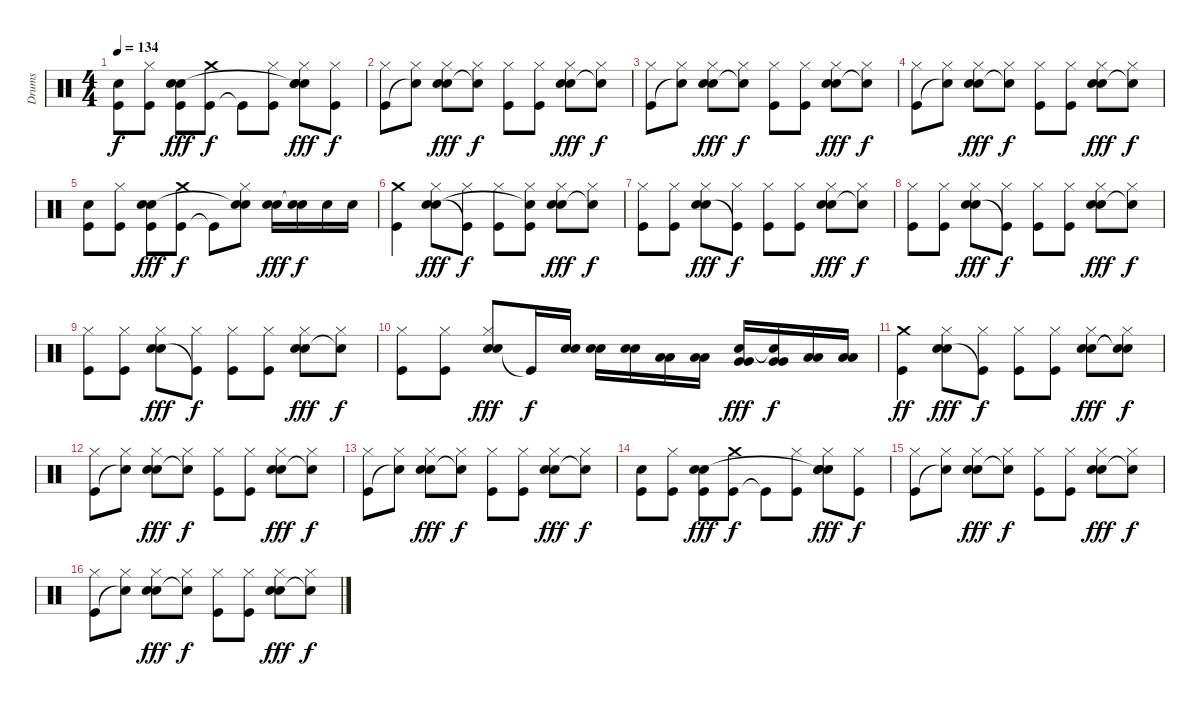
\track ("Drums" "Drums") {instrument percussion}
\staff {score}
\articulation defaults
\ts (4 4)
\tempo 134
\clef neutral
\ks c
("Kick (hit)" "Snare (hit) 2").8{dy f} ("Kick (hit)" "Hi-Hat (closed)").8 ("Kick (hit)" "Snare (hit) 2" "Hand Clap (hit)").8{dy fff} ("Kick (hit)" "Crash medium (hit)").8{dy f} "Kick (hit)"{t}.8 ("Kick (hit)" "Hi-Hat (closed)").8 ("Snare (hit) 2" "Hi-Hat (closed)" "Snare (hit)"{t} "Hand Clap (hit)").8{dy fff} ("Kick (hit)" "Hi-Hat (closed)").8{dy f} |
("Kick (hit)" "Hi-Hat (closed)").8 ("Snare (hit)"{t} "Hi-Hat (closed)").8 ("Snare (hit) 2" "Hi-Hat (closed)" "Hand Clap (hit)").8{dy fff} ("Snare (hit)"{t} "Hi-Hat (closed)").8{dy f} ("Kick (hit)" "Hi-Hat (closed)").8 ("Kick (hit)" "Hi-Hat (closed)").8 ("Snare (hit) 2" "Hi-Hat (closed)" "Hand Clap (hit)").8{dy fff} ("Snare (hit)"{t} "Hi-Hat (closed)").8{dy f} |
("Kick (hit)" "Hi-Hat (closed)").8 ("Snare (hit)"{t} "Hi-Hat (closed)").8 ("Snare (hit) 2" "Hi-Hat (closed)" "Hand Clap (hit)").8{dy fff} ("Snare (hit)"{t} "Hi-Hat (closed)").8{dy f} ("Kick (hit)" "Hi-Hat (closed)").8 ("Kick (hit)" "Hi-Hat (closed)").8 ("Snare (hit) 2" "Hi-Hat (closed)" "Hand Clap (hit)").8{dy fff} ("Snare (hit)"{t} "Hi-Hat (closed)").8{dy f} |
("Kick (hit)" "Hi-Hat (closed)").8 ("Snare (hit)"{t} "Hi-Hat (closed)").8 ("Snare (hit) 2" "Hi-Hat (closed)" "Hand Clap (hit)").8{dy fff} ("Snare (hit)"{t} "Hi-Hat (closed)").8{dy f} ("Kick (hit)" "Hi-Hat (closed)").8 ("Kick (hit)" "Hi-Hat (closed)").8 ("Snare (hit) 2" "Hi-Hat (closed)" "Hand Clap (hit)").8{dy fff} ("Snare (hit)"{t} "Hi-Hat (closed)").8{dy f} |
("Kick (hit)" "Snare (hit) 2").8 ("Kick (hit)" "Hi-Hat (closed)").8 ("Kick (hit)" "Snare (hit) 2" "Hand Clap (hit)").8{dy fff} ("Kick (hit)" "Crash medium (hit)").8{dy f} "Kick (hit)"{t}.8 ("Snare (hit) 2" "Hi-Hat (closed)" "Snare (hit)"{t}).8 ("Snare (hit) 2" "Hand Clap (hit)").16{dy fff} ("Snare (hit) 2" "Snare (hit)"{t}).16{dy f} "Snare (hit) 2".16 "Snare (hit) 2".16 |
("Kick (hit)" "Crash medium (hit)").4 ("Snare (hit) 2" "Hi-Hat (closed)" "Hand Clap (hit)").8{dy fff} ("Kick (hit)"{t} "Hi-Hat (closed)").8{dy f} ("Kick (hit)" "Hi-Hat (closed)").8 ("Kick (hit)" "Hi-Hat (closed)" "Snare (hit)"{t}).8 ("Snare (hit) 2" "Hi-Hat (closed)" "Hand Clap (hit)").8{dy fff} ("Snare (hit)"{t} "Hi-Hat (closed)").8{dy f} |
("Kick (hit)" "Hi-Hat (closed)").8 ("Kick (hit)" "Hi-Hat (closed)").8 ("Snare (hit) 2" "Hi-Hat (closed)" "Hand Clap (hit)").8{dy fff} ("Kick (hit)"{t} "Hi-Hat (closed)").8{dy f} ("Kick (hit)" "Hi-Hat (closed)").8 ("Kick (hit)" "Hi-Hat (closed)").8 ("Snare (hit) 2" "Hi-Hat (closed)" "Hand Clap (hit)").8{dy fff} ("Snare (hit)"{t} "Hi-Hat (closed)").8{dy f} |
("Kick (hit)" "Hi-Hat (closed)").8 ("Kick (hit)" "Hi-Hat (closed)").8 ("Snare (hit) 2" "Hi-Hat (closed)" "Hand Clap (hit)").8{dy fff} ("Kick (hit)"{t} "Hi-Hat (closed)").8{dy f} ("Kick (hit)" "Hi-Hat (closed)").8 ("Kick (hit)" "Hi-Hat (closed)").8 ("Snare (hit) 2" "Hi-Hat (closed)" "Hand Clap (hit)").8{dy fff} ("Snare (hit)"{t} "Hi-Hat (closed)").8{dy f} |
("Kick (hit)" "Hi-Hat (closed)").8 ("Kick (hit)" "Hi-Hat (closed)").8 ("Snare (hit) 2" "Hi-Hat (closed)" "Hand Clap (hit)").8{dy fff} ("Kick (hit)"{t} "Hi-Hat (closed)").8{dy f} ("Kick (hit)" "Hi-Hat (closed)").8 ("Kick (hit)" "Hi-Hat (closed)").8 ("Snare (hit) 2" "Hi-Hat (closed)" "Hand Clap (hit)").8{dy fff} ("Snare (hit)"{t} "Hi-Hat (closed)").8{dy f} |
("Kick (hit)" "Hi-Hat (closed)").8 ("Kick (hit)" "Hi-Hat (closed)").8 ("Snare (hit) 2" "Hi-Hat (closed)" "Hand Clap (hit)").8{dy fff} "Kick (hit)"{t}.16{dy f} ("Snare (hit) 2" "Snare (hit) 2").16 ("Snare (hit) 2" "Snare (hit) 2").16 ("Snare (hit) 2" "Snare (hit) 2").16 ("Low Tom (hit)" "Low Tom (hit)").16 ("Low Tom (hit)" "Low Tom (hit)").16 ("Very Low Tom (hit)" "Very Low Tom (hit)" "Hand Clap (hit)").16{dy fff} ("Very Low Tom (hit)" "Very Low Tom (hit)" "Snare (hit)"{t}).16{dy f} ("Low Floor Tom (hit)" "Low Floor Tom (hit)").16 ("Low Floor Tom (hit)" "Low Floor Tom (hit)").16 |
("Kick (hit)" "Crash medium (hit)").4{dy ff} ("Snare (hit) 2" "Hi-Hat (closed)" "Hand Clap (hit)").8{dy fff} ("Kick (hit)"{t} "Hi-Hat (closed)").8{dy f} ("Kick (hit)" "Hi-Hat (closed)").8 ("Kick (hit)" "Hi-Hat (closed)").8 ("Snare (hit) 2" "Hi-Hat (closed)" "Hand Clap (hit)").8{dy fff} ("Snare (hit)"{t} "Hi-Hat (closed)" "Snare (hit)"{t}).8{dy f} |
("Kick (hit)" "Hi-Hat (closed)").8 ("Snare (hit)"{t} "Hi-Hat (closed)").8 ("Snare (hit) 2" "Hi-Hat (closed)" "Hand Clap (hit)").8{dy fff} ("Snare (hit)"{t} "Hi-Hat (closed)").8{dy f} ("Kick (hit)" "Hi-Hat (closed)").8 ("Kick (hit)" "Hi-Hat (closed)").8 ("Snare (hit) 2" "Hi-Hat (closed)" "Hand Clap (hit)").8{dy fff} ("Snare (hit)"{t} "Hi-Hat (closed)").8{dy f} |
("Kick (hit)" "Hi-Hat (closed)").8 ("Snare (hit)"{t} "Hi-Hat (closed)").8 ("Snare (hit) 2" "Hi-Hat (closed)" "Hand Clap (hit)").8{dy fff} ("Snare (hit)"{t} "Hi-Hat (closed)").8{dy f} ("Kick (hit)" "Hi-Hat (closed)").8 ("Kick (hit)" "Hi-Hat (closed)").8 ("Snare (hit) 2" "Hi-Hat (closed)" "Hand Clap (hit)").8{dy fff} ("Snare (hit)"{t} "Hi-Hat (closed)").8{dy f} |
("Kick (hit)" "Snare (hit) 2").8 ("Kick (hit)" "Hi-Hat (closed)").8 ("Kick (hit)" "Snare (hit) 2" "Hand Clap (hit)").8{dy fff} ("Kick (hit)" "Crash medium (hit)").8{dy f} "Kick (hit)"{t}.8 ("Kick (hit)" "Hi-Hat (closed)").8 ("Snare (hit) 2" "Hi-Hat (closed)" "Snare (hit)"{t} "Hand Clap (hit)").8{dy fff} ("Kick (hit)" "Hi-Hat (closed)").8{dy f} |
("Kick (hit)" "Hi-Hat (closed)").8{volume 12} ("Snare (hit)"{t} "Hi-Hat (closed)").8 ("Snare (hit) 2" "Hi-Hat (closed)" "Hand Clap (hit)").8{dy fff} ("Snare (hit)"{t} "Hi-Hat (closed)").8{dy f} ("Kick (hit)" "Hi-Hat (closed)").8 ("Kick (hit)" "Hi-Hat (closed)").8 ("Snare (hit) 2" "Hi-Hat (closed)" "Hand Clap (hit)").8{dy fff} ("Snare (hit)"{t} "Hi-Hat (closed)").8{dy f} |
("Kick (hit)" "Hi-Hat (closed)").8 ("Snare (hit)"{t} "Hi-Hat (closed)").8 ("Snare (hit) 2" "Hi-Hat (closed)" "Hand Clap (hit)").8{dy fff} ("Snare (hit)"{t} "Hi-Hat (closed)").8{dy f} ("Kick (hit)" "Hi-Hat (closed)").8 ("Kick (hit)" "Hi-Hat (closed)").8 ("Snare (hit) 2" "Hi-Hat (closed)" "Hand Clap (hit)").8{dy fff} ("Snare (hit)"{t} "Hi-Hat (closed)").8{dy f}
